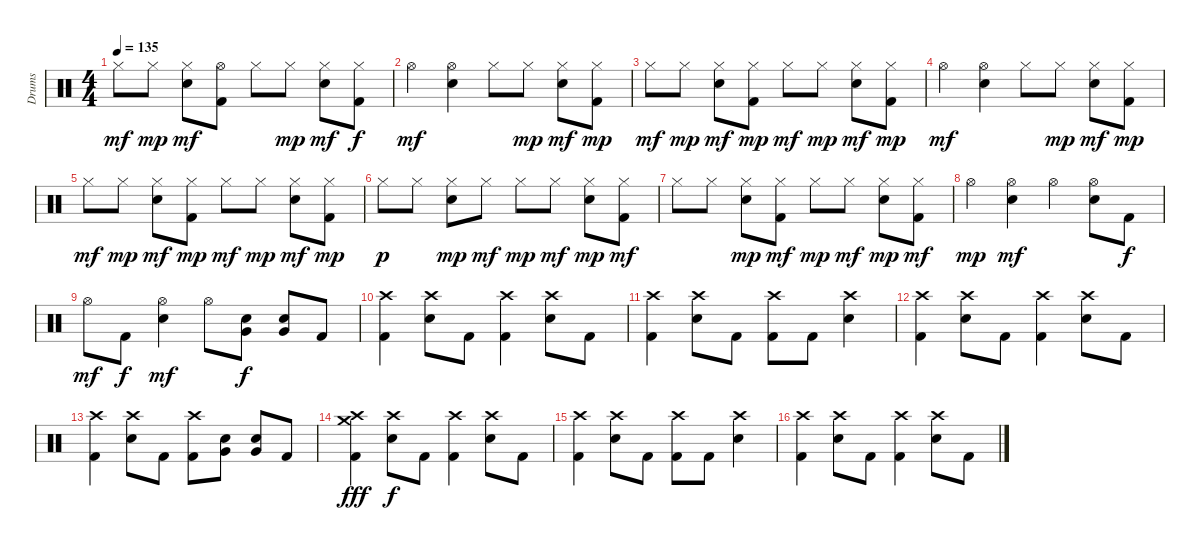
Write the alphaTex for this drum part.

\track ("Drums" "Drums") {instrument percussion}
\staff {score}
\articulation defaults
\ts (4 4)
\tempo 135
\clef neutral
\ks c "Hi-Hat (closed)".8{dy mf} "Hi-Hat (closed)".8{dy mp}
("Hi-Hat (closed)" "Electric Snare (hit)").8{dy mf} ("Hi-Hat (open)" "Kick (hit) 2").8 "Hi-Hat (closed)".8 "Hi-Hat (closed)".8{dy mp} ("Hi-Hat (closed)" "Electric Snare (hit)").8{dy mf} ("Hi-Hat (closed)" "Kick (hit) 2").8{dy f} |
"Hi-Hat (open)".4{dy mf} ("Hi-Hat (open)" "Electric Snare (hit)").4 "Hi-Hat (closed)".8 "Hi-Hat (closed)".8{dy mp} ("Hi-Hat (closed)" "Electric Snare (hit)").8{dy mf} ("Hi-Hat (closed)" "Kick (hit) 2").8{dy mp} |
"Hi-Hat (closed)".8{dy mf} "Hi-Hat (closed)".8{dy mp} ("Hi-Hat (closed)" "Electric Snare (hit)").8{dy mf} ("Hi-Hat (closed)" "Kick (hit) 2").8{dy mp} "Hi-Hat (closed)".8{dy mf} "Hi-Hat (closed)".8{dy mp} ("Hi-Hat (closed)" "Electric Snare (hit)").8{dy mf} ("Hi-Hat (closed)" "Kick (hit) 2").8{dy mp} |
"Hi-Hat (open)".4{dy mf} ("Hi-Hat (open)" "Electric Snare (hit)").4 "Hi-Hat (closed)".8 "Hi-Hat (closed)".8{dy mp} ("Hi-Hat (closed)" "Electric Snare (hit)").8{dy mf} ("Hi-Hat (closed)" "Kick (hit) 2").8{dy mp} |
"Hi-Hat (closed)".8{dy mf} "Hi-Hat (closed)".8{dy mp} ("Hi-Hat (closed)" "Electric Snare (hit)").8{dy mf} ("Hi-Hat (closed)" "Kick (hit) 2").8{dy mp} "Hi-Hat (closed)".8{dy mf} "Hi-Hat (closed)".8{dy mp} ("Hi-Hat (closed)" "Electric Snare (hit)").8{dy mf} ("Hi-Hat (closed)" "Kick (hit) 2").8{dy mp} |
"Hi-Hat (closed)".8{dy p} "Hi-Hat (closed)".8 ("Hi-Hat (closed)" "Electric Snare (hit)").8{dy mp} "Hi-Hat (closed)".8{dy mf} "Hi-Hat (closed)".8{dy mp} "Hi-Hat (closed)".8{dy mf} ("Hi-Hat (closed)" "Electric Snare (hit)").8{dy mp} ("Hi-Hat (closed)" "Kick (hit) 2").8{dy mf} |
"Hi-Hat (closed)".8 "Hi-Hat (closed)".8 ("Hi-Hat (closed)" "Electric Snare (hit)").8{dy mp} ("Hi-Hat (closed)" "Kick (hit) 2").8{dy mf} "Hi-Hat (closed)".8{dy mp} "Hi-Hat (closed)".8{dy mf} ("Hi-Hat (closed)" "Electric Snare (hit)").8{dy mp} ("Hi-Hat (closed)" "Kick (hit) 2").8{dy mf} |
"Hi-Hat (open)".4{dy mp} ("Hi-Hat (open)" "Electric Snare (hit)").4{dy mf} "Hi-Hat (open)".4 ("Hi-Hat (open)" "Electric Snare (hit)").8 "Kick (hit) 2".8{dy f} |
"Hi-Hat (open)".8{dy mf} "Kick (hit) 2".8{dy f} ("Hi-Hat (open)" "Electric Snare (hit)").4{dy mf} "Hi-Hat (open)".8 ("Very Low Tom (hit)" "Electric Snare (hit)").8{dy f} ("Very Low Tom (hit)" "Electric Snare (hit)").8 "Kick (hit) 2".8 |
("Crash high (hit)" "Kick (hit) 2").4 ("Crash high (hit)" "Electric Snare (hit)").8 "Kick (hit) 2".8 ("Crash high (hit)" "Kick (hit) 2").4 ("Crash high (hit)" "Electric Snare (hit)").8 "Kick (hit) 2".8 |
("Crash high (hit)" "Kick (hit) 2").4 ("Crash high (hit)" "Electric Snare (hit)").8 "Kick (hit) 2".8 ("Crash high (hit)" "Kick (hit) 2").8 "Kick (hit) 2".8 ("Crash high (hit)" "Electric Snare (hit)").4 |
("Crash high (hit)" "Kick (hit) 2").4 ("Crash high (hit)" "Electric Snare (hit)").8 "Kick (hit) 2".8 ("Crash high (hit)" "Kick (hit) 2").4 ("Crash high (hit)" "Electric Snare (hit)").8 "Kick (hit) 2".8 |
("Crash high (hit)" "Kick (hit) 2").4 ("Crash high (hit)" "Electric Snare (hit)").8 "Kick (hit) 2".8 ("Crash high (hit)" "Kick (hit) 2").8 ("Very Low Tom (hit)" "Electric Snare (hit)").8 ("Very Low Tom (hit)" "Electric Snare (hit)").8 "Kick (hit) 2".8 |
("Crash medium (hit)" "Crash high (hit)" "Kick (hit) 2").4{dy fff} ("Crash high (hit)" "Electric Snare (hit)").8{dy f} "Kick (hit) 2".8 ("Crash high (hit)" "Kick (hit) 2").4 ("Crash high (hit)" "Electric Snare (hit)").8 "Kick (hit) 2".8 |
("Crash high (hit)" "Kick (hit) 2").4 ("Crash high (hit)" "Electric Snare (hit)").8 "Kick (hit) 2".8 ("Crash high (hit)" "Kick (hit) 2").8 "Kick (hit) 2".8 ("Crash high (hit)" "Electric Snare (hit)").4 |
("Crash high (hit)" "Kick (hit) 2").4 ("Crash high (hit)" "Electric Snare (hit)").8 "Kick (hit) 2".8 ("Crash high (hit)" "Kick (hit) 2").4 ("Crash high (hit)" "Electric Snare (hit)").8 "Kick (hit) 2".8
